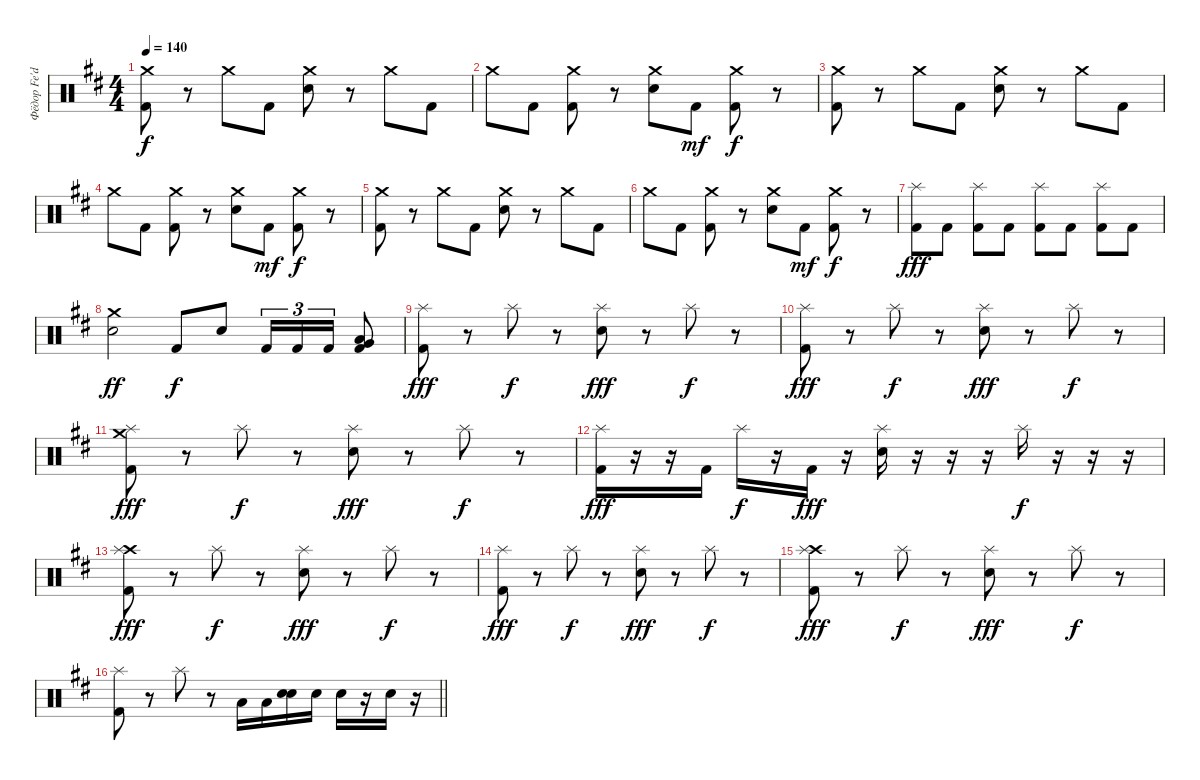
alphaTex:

\track ("Фёдор Fe'dor Локшин" "Фёдор Fe'd") {instrument percussion}
\staff {score}
\articulation defaults
\ts (4 4)
\tempo 140
\clef neutral
\ks bminor
("Crash medium (hit)" "Kick (hit) 2").8{dy f} r.8 "Crash medium (hit)".8 "Kick (hit) 2".8 ("Crash medium (hit)" "Snare (hit) 2").8 r.8 "Crash medium (hit)".8 "Kick (hit) 2".8 |
"Crash medium (hit)".8 "Kick (hit) 2".8 ("Crash medium (hit)" "Kick (hit) 2").8 r.8 ("Crash medium (hit)" "Snare (hit) 2").8 "Kick (hit) 2".8{dy mf} ("Crash medium (hit)" "Kick (hit) 2").8{dy f} r.8 |
("Crash medium (hit)" "Kick (hit) 2").8 r.8 "Crash medium (hit)".8 "Kick (hit) 2".8 ("Crash medium (hit)" "Snare (hit) 2").8 r.8 "Crash medium (hit)".8 "Kick (hit) 2".8 |
"Crash medium (hit)".8 "Kick (hit) 2".8 ("Crash medium (hit)" "Kick (hit) 2").8 r.8 ("Crash medium (hit)" "Snare (hit) 2").8 "Kick (hit) 2".8{dy mf} ("Crash medium (hit)" "Kick (hit) 2").8{dy f} r.8 |
("Crash medium (hit)" "Kick (hit) 2").8 r.8 "Crash medium (hit)".8 "Kick (hit) 2".8 ("Crash medium (hit)" "Snare (hit) 2").8 r.8 "Crash medium (hit)".8 "Kick (hit) 2".8 |
"Crash medium (hit)".8 "Kick (hit) 2".8 ("Crash medium (hit)" "Kick (hit) 2").8 r.8 ("Crash medium (hit)" "Snare (hit) 2").8 "Kick (hit) 2".8{dy mf} ("Crash medium (hit)" "Kick (hit) 2").8{dy f} r.8 |
("Splash (hit)" "Kick (hit) 2").8{dy fff} "Kick (hit) 2".8 ("Splash (hit)" "Kick (hit) 2").8 "Kick (hit) 2".8 ("Splash (hit)" "Kick (hit) 2").8 "Kick (hit) 2".8 ("Splash (hit)" "Kick (hit) 2").8 "Kick (hit) 2".8 |
("Crash medium (hit)" "Snare (hit) 2").2{dy ff} "Kick (hit) 2".8{dy f} "Snare (hit) 2".8 "Kick (hit) 2".16{tu (3 2)} "Kick (hit) 2".16{tu (3 2)} "Kick (hit) 2".16{tu (3 2)} ("Very Low Tom (hit)" "Low Floor Tom (hit)" "Kick (hit) 2").8 |
("Splash (hit)" "Kick (hit) 2").8{dy fff} r.8 "Splash (hit)".8{dy f} r.8 ("Splash (hit)" "Snare (hit) 2").8{dy fff} r.8 "Splash (hit)".8{dy f} r.8 |
("Splash (hit)" "Kick (hit) 2").8{dy fff} r.8 "Splash (hit)".8{dy f} r.8 ("Splash (hit)" "Snare (hit) 2").8{dy fff} r.8 "Splash (hit)".8{dy f} r.8 |
("Crash medium (hit)" "Splash (hit)" "Kick (hit) 2").8{dy fff} r.8 "Splash (hit)".8{dy f} r.8 ("Splash (hit)" "Snare (hit) 2").8{dy fff} r.8 "Splash (hit)".8{dy f} r.8 |
("Splash (hit)" "Kick (hit) 2").16{dy fff} r.16 r.16 "Kick (hit) 2".16 "Splash (hit)".16{dy f} r.16 "Kick (hit) 2".16{dy fff} r.16 ("Splash (hit)" "Snare (hit) 2").16 r.16 r.16 r.16 "Splash (hit)".16{dy f} r.16 r.16 r.16 |
("Crash high (hit)" "Splash (hit)" "Kick (hit) 2").8{dy fff} r.8 "Splash (hit)".8{dy f} r.8 ("Splash (hit)" "Snare (hit) 2").8{dy fff} r.8 "Splash (hit)".8{dy f} r.8 |
("Splash (hit)" "Kick (hit) 2").8{dy fff} r.8 "Splash (hit)".8{dy f} r.8 ("Splash (hit)" "Snare (hit) 2").8{dy fff} r.8 "Splash (hit)".8{dy f} r.8 |
("Crash high (hit)" "Splash (hit)" "Kick (hit) 2").8{dy fff} r.8 "Splash (hit)".8{dy f} r.8 ("Splash (hit)" "Snare (hit) 2").8{dy fff} r.8 "Splash (hit)".8{dy f} r.8 |
\barLineRight lightlight
("Splash (hit)" "Kick (hit) 2").8 r.8 "Splash (hit)".8 r.8 "Low Floor Tom (hit)".16 "Low Floor Tom (hit)".16 ("Snare (hit) 2" "Electric Snare (hit)").16 "Snare (hit) 2".16 "Snare (hit) 2".16 r.16 "Snare (hit) 2".16 r.16
